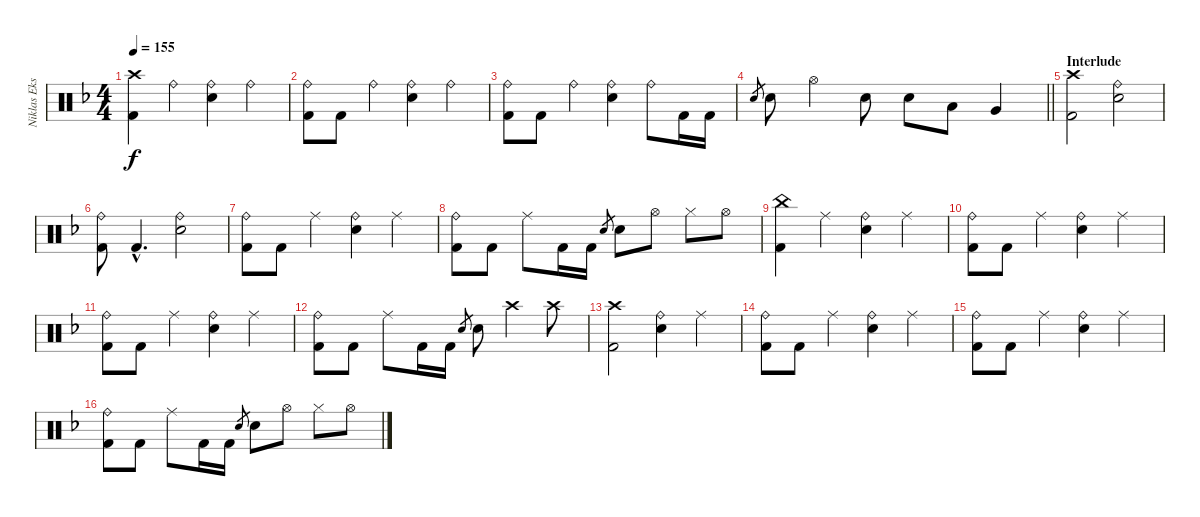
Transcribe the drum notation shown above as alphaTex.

\track ("Niklas Ekstrand" "Niklas Eks") {instrument percussion}
\staff {score}
\articulation defaults
\ts (4 4)
\tempo 155
\clef neutral
\ks dminor
("Crash high (hit)" "Kick (hit) 2").4{dy f} "Ride (bell)".4 ("Ride (bell)" "Snare (hit) 2").4 "Ride (bell)".4 |
("Ride (bell)" "Kick (hit) 2").8 "Kick (hit) 2".8 "Ride (bell)".4 ("Ride (bell)" "Snare (hit) 2").4 "Ride (bell)".4 |
("Ride (bell)" "Kick (hit) 2").8 "Kick (hit) 2".8 "Ride (bell)".4 ("Ride (bell)" "Snare (hit) 2").4 "Ride (bell)".8 "Kick (hit) 2".16 "Kick (hit) 2".16 |
\barLineRight lightlight "Snare (hit) 2".8{gr} "Snare (hit) 2".8 "Hi-Hat (open)".4 "Snare (hit) 2".8 "Snare (hit) 2".8 "Low Tom (hit)".8 "Very Low Tom (hit)".4
|
\section ("" "Interlude")
("Crash high (hit)" "Kick (hit) 2").2 ("Ride (bell)" "Snare (hit) 2").2 |
("Ride (bell)" "Kick (hit) 2").8 "Kick (hit) 2"{hac}.4{d} ("Ride (bell)" "Snare (hit) 2").2 |
("Ride (bell)" "Kick (hit) 2").8 "Kick (hit) 2".8 "Ride (middle)".4 ("Ride (bell)" "Snare (hit) 2").4 "Ride (middle)".4 |
("Ride (bell)" "Kick (hit) 2").8 "Kick (hit) 2".8 "Ride (middle)".8 "Kick (hit) 2".16 "Kick (hit) 2".16 "Snare (hit) 2".8{gr} "Snare (hit) 2".8 "Hi-Hat (open)".8 "Hi-Hat (closed)".8 "Hi-Hat (open)".8 |
("China (hit)" "Kick (hit) 2").4 "Ride (middle)".4 ("Ride (bell)" "Snare (hit) 2").4 "Ride (middle)".4 |
("Ride (bell)" "Kick (hit) 2").8 "Kick (hit) 2".8 "Ride (middle)".4 ("Ride (bell)" "Snare (hit) 2").4 "Ride (middle)".4 |
("Ride (bell)" "Kick (hit) 2").8 "Kick (hit) 2".8 "Ride (middle)".4 ("Ride (bell)" "Snare (hit) 2").4 "Ride (middle)".4 |
("Ride (bell)" "Kick (hit) 2").8 "Kick (hit) 2".8 "Ride (middle)".8 "Kick (hit) 2".16 "Kick (hit) 2".16 "Snare (hit) 2".8{gr} "Snare (hit) 2".8 "Crash high (hit)".4 "Crash high (hit)".8 |
("Crash high (hit)" "Kick (hit) 2").2 ("Ride (bell)" "Snare (hit) 2").4 "Ride (middle)".4 |
("Ride (bell)" "Kick (hit) 2").8 "Kick (hit) 2".8 "Ride (middle)".4 ("Ride (bell)" "Snare (hit) 2").4 "Ride (middle)".4 |
("Ride (bell)" "Kick (hit) 2").8 "Kick (hit) 2".8 "Ride (middle)".4 ("Ride (bell)" "Snare (hit) 2").4 "Ride (middle)".4 |
("Ride (bell)" "Kick (hit) 2").8 "Kick (hit) 2".8 "Ride (middle)".8 "Kick (hit) 2".16 "Kick (hit) 2".16 "Snare (hit) 2".8{gr} "Snare (hit) 2".8 "Hi-Hat (open)".8 "Hi-Hat (closed)".8 "Hi-Hat (open)".8
